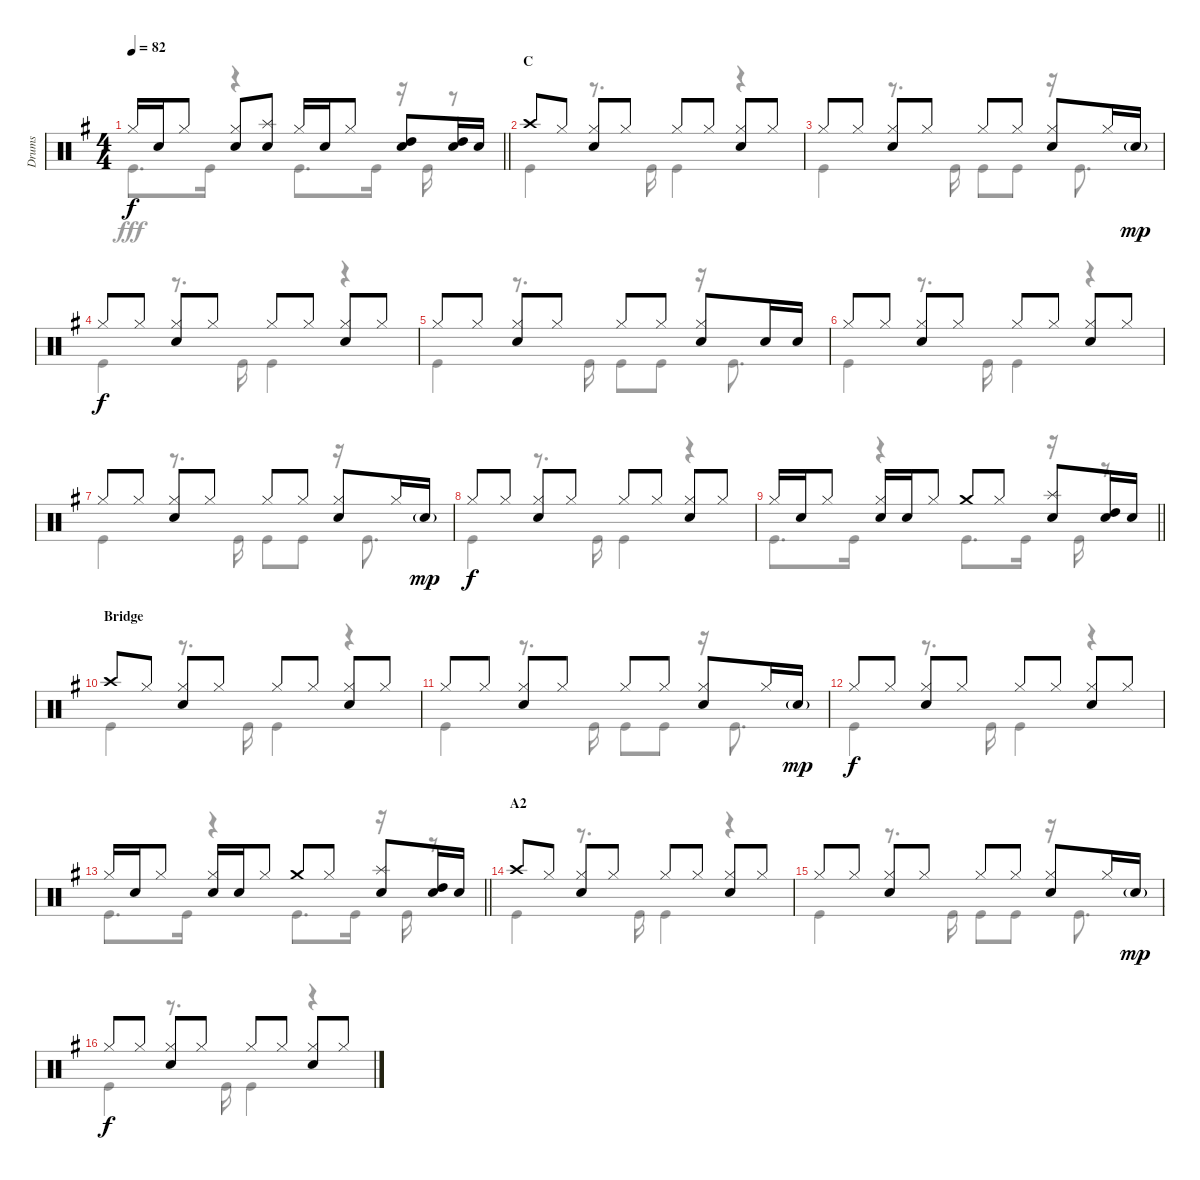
\track ("Drums" "Drums") {instrument percussion}
\staff {score}
\articulation defaults
\voice
\ts (4 4)
\tempo 82
\clef neutral
\barLineRight lightlight
\ks g "Hi-Hat (closed)".16{dy f} "Snare (hit) 2".16 "Hi-Hat (closed)".8
("Hi-Hat (closed)" "Snare (hit) 2").8 ("Splash (hit)" "Snare (hit) 2").8 "Hi-Hat (closed)".16 "Snare (hit) 2".16 "Hi-Hat (closed)".8 ("High Tom (hit)" "Snare (hit) 2").8 ("High Tom (hit)" "Snare (hit) 2").16 "Snare (hit) 2".16 |
\section ("" "C")
"Crash high (hit)".8 "Hi-Hat (closed)".8 ("Hi-Hat (closed)" "Snare (hit) 2").8 "Hi-Hat (closed)".8 "Hi-Hat (closed)".8 "Hi-Hat (closed)".8 ("Hi-Hat (closed)" "Snare (hit) 2").8 "Hi-Hat (closed)".8 |
"Hi-Hat (closed)".8 "Hi-Hat (closed)".8 ("Hi-Hat (closed)" "Snare (hit) 2").8 "Hi-Hat (closed)".8 "Hi-Hat (closed)".8 "Hi-Hat (closed)".8 ("Hi-Hat (closed)" "Snare (hit) 2").8 "Hi-Hat (closed)".16 "Snare (hit) 2"{g}.16{dy mp} |
"Hi-Hat (closed)".8{dy f} "Hi-Hat (closed)".8 ("Hi-Hat (closed)" "Snare (hit) 2").8 "Hi-Hat (closed)".8 "Hi-Hat (closed)".8 "Hi-Hat (closed)".8 ("Hi-Hat (closed)" "Snare (hit) 2").8 "Hi-Hat (closed)".8 |
"Hi-Hat (closed)".8 "Hi-Hat (closed)".8 ("Hi-Hat (closed)" "Snare (hit) 2").8 "Hi-Hat (closed)".8 "Hi-Hat (closed)".8 "Hi-Hat (closed)".8 ("Hi-Hat (closed)" "Snare (hit) 2").8 "Snare (hit) 2".16 "Snare (hit) 2".16 |
"Hi-Hat (closed)".8 "Hi-Hat (closed)".8 ("Hi-Hat (closed)" "Snare (hit) 2").8 "Hi-Hat (closed)".8 "Hi-Hat (closed)".8 "Hi-Hat (closed)".8 ("Hi-Hat (closed)" "Snare (hit) 2").8 "Hi-Hat (closed)".8 |
"Hi-Hat (closed)".8 "Hi-Hat (closed)".8 ("Hi-Hat (closed)" "Snare (hit) 2").8 "Hi-Hat (closed)".8 "Hi-Hat (closed)".8 "Hi-Hat (closed)".8 ("Hi-Hat (closed)" "Snare (hit) 2").8 "Hi-Hat (closed)".16 "Snare (hit) 2"{g}.16{dy mp} |
"Hi-Hat (closed)".8{dy f} "Hi-Hat (closed)".8 ("Hi-Hat (closed)" "Snare (hit) 2").8 "Hi-Hat (closed)".8 "Hi-Hat (closed)".8 "Hi-Hat (closed)".8 ("Hi-Hat (closed)" "Snare (hit) 2").8 "Hi-Hat (closed)".8 |
\barLineRight lightlight "Hi-Hat (closed)".16 "Snare (hit) 2".16 "Hi-Hat (closed)".8
("Hi-Hat (closed)" "Snare (hit) 2").16 "Snare (hit) 2".16 "Hi-Hat (closed)".8 "Crash medium (hit)".8 "Hi-Hat (closed)".8 ("Splash (hit)" "Snare (hit) 2").8 ("High Tom (hit)" "Snare (hit) 2").16 "Snare (hit) 2".16 |
\section ("" "Bridge")
"Crash high (hit)".8 "Hi-Hat (closed)".8 ("Hi-Hat (closed)" "Snare (hit) 2").8 "Hi-Hat (closed)".8 "Hi-Hat (closed)".8 "Hi-Hat (closed)".8 ("Hi-Hat (closed)" "Snare (hit) 2").8 "Hi-Hat (closed)".8 |
"Hi-Hat (closed)".8 "Hi-Hat (closed)".8 ("Hi-Hat (closed)" "Snare (hit) 2").8 "Hi-Hat (closed)".8 "Hi-Hat (closed)".8 "Hi-Hat (closed)".8 ("Hi-Hat (closed)" "Snare (hit) 2").8 "Hi-Hat (closed)".16 "Snare (hit) 2"{g}.16{dy mp} |
"Hi-Hat (closed)".8{dy f} "Hi-Hat (closed)".8 ("Hi-Hat (closed)" "Snare (hit) 2").8 "Hi-Hat (closed)".8 "Hi-Hat (closed)".8 "Hi-Hat (closed)".8 ("Hi-Hat (closed)" "Snare (hit) 2").8 "Hi-Hat (closed)".8 |
\barLineRight lightlight "Hi-Hat (closed)".16 "Snare (hit) 2".16 "Hi-Hat (closed)".8
("Hi-Hat (closed)" "Snare (hit) 2").16 "Snare (hit) 2".16 "Hi-Hat (closed)".8 "Crash medium (hit)".8 "Hi-Hat (closed)".8 ("Splash (hit)" "Snare (hit) 2").8 ("High Tom (hit)" "Snare (hit) 2").16 "Snare (hit) 2".16 |
\section ("" "A2")
"Crash high (hit)".8 "Hi-Hat (closed)".8 ("Hi-Hat (closed)" "Snare (hit) 2").8 "Hi-Hat (closed)".8 "Hi-Hat (closed)".8 "Hi-Hat (closed)".8 ("Hi-Hat (closed)" "Snare (hit) 2").8 "Hi-Hat (closed)".8 |
"Hi-Hat (closed)".8 "Hi-Hat (closed)".8 ("Hi-Hat (closed)" "Snare (hit) 2").8 "Hi-Hat (closed)".8 "Hi-Hat (closed)".8 "Hi-Hat (closed)".8 ("Hi-Hat (closed)" "Snare (hit) 2").8 "Hi-Hat (closed)".16 "Snare (hit) 2"{g}.16{dy mp} |
"Hi-Hat (closed)".8{dy f} "Hi-Hat (closed)".8 ("Hi-Hat (closed)" "Snare (hit) 2").8 "Hi-Hat (closed)".8 "Hi-Hat (closed)".8 "Hi-Hat (closed)".8 ("Hi-Hat (closed)" "Snare (hit) 2").8 "Hi-Hat (closed)".8
\voice
\clef neutral
\ottava regular
\simile none
\barLineRight lightlight
\ks g "Kick (hit)".8{d dy fff} "Kick (hit)".16
r.4 "Kick (hit)".8{d} "Kick (hit)".16 r.16 "Kick (hit)".16 r.8 |
"Kick (hit)".4 r.8{d} "Kick (hit)".16 "Kick (hit)".4 r.4 |
"Kick (hit)".4 r.8{d} "Kick (hit)".16 "Kick (hit)".8 "Kick (hit)".8 r.16 "Kick (hit)".8{d} |
"Kick (hit)".4 r.8{d} "Kick (hit)".16 "Kick (hit)".4 r.4 |
"Kick (hit)".4 r.8{d} "Kick (hit)".16 "Kick (hit)".8 "Kick (hit)".8 r.16 "Kick (hit)".8{d} |
"Kick (hit)".4 r.8{d} "Kick (hit)".16 "Kick (hit)".4 r.4 |
"Kick (hit)".4 r.8{d} "Kick (hit)".16 "Kick (hit)".8 "Kick (hit)".8 r.16 "Kick (hit)".8{d} |
"Kick (hit)".4 r.8{d} "Kick (hit)".16 "Kick (hit)".4 r.4 |
\barLineRight lightlight "Kick (hit)".8{d} "Kick (hit)".16
r.4 "Kick (hit)".8{d} "Kick (hit)".16 r.16 "Kick (hit)".16 r.8 |
"Kick (hit)".4 r.8{d} "Kick (hit)".16 "Kick (hit)".4 r.4 |
"Kick (hit)".4 r.8{d} "Kick (hit)".16 "Kick (hit)".8 "Kick (hit)".8 r.16 "Kick (hit)".8{d} |
"Kick (hit)".4 r.8{d} "Kick (hit)".16 "Kick (hit)".4 r.4 |
\barLineRight lightlight "Kick (hit)".8{d} "Kick (hit)".16
r.4 "Kick (hit)".8{d} "Kick (hit)".16 r.16 "Kick (hit)".16 r.8 |
"Kick (hit)".4 r.8{d} "Kick (hit)".16 "Kick (hit)".4 r.4 |
"Kick (hit)".4 r.8{d} "Kick (hit)".16 "Kick (hit)".8 "Kick (hit)".8 r.16 "Kick (hit)".8{d} |
"Kick (hit)".4 r.8{d} "Kick (hit)".16 "Kick (hit)".4 r.4
